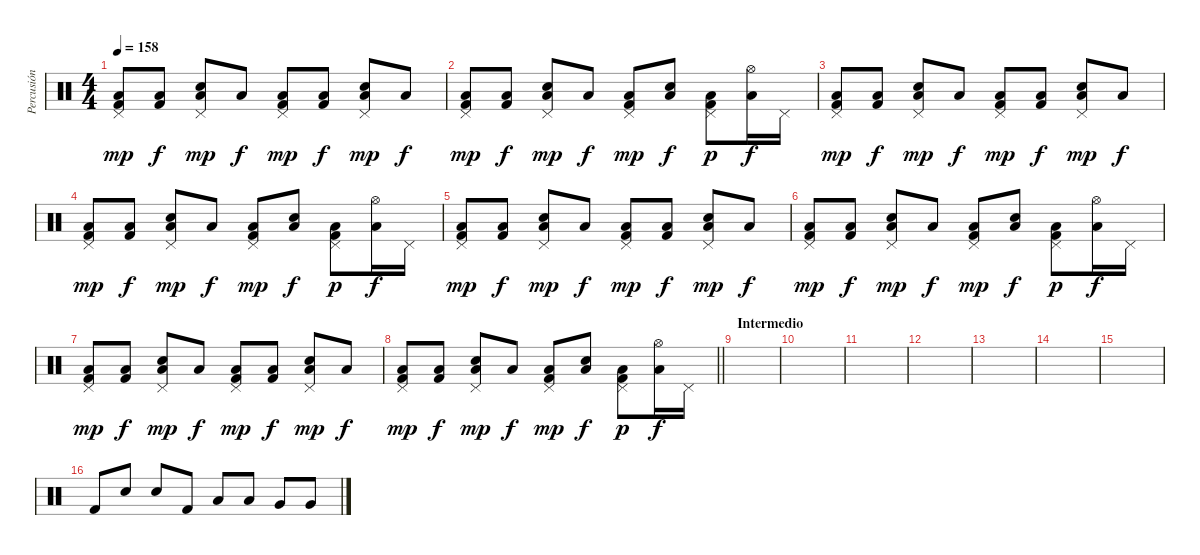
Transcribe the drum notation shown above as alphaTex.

\track ("Percusión" "Percusión") {instrument percussion}
\staff {score}
\articulation defaults
\ts (4 4)
\tempo 158
\clef neutral
\ks c
("Pedal Hi-Hat (hit)" "Low Floor Tom (hit)" "Kick (hit) 2").8{dy mp} ("Low Floor Tom (hit)" "Kick (hit) 2").8{dy f} ("Pedal Hi-Hat (hit)" "Low Floor Tom (hit)" "Electric Snare (hit)").8{dy mp} "Low Floor Tom (hit)".8{dy f} ("Pedal Hi-Hat (hit)" "Low Floor Tom (hit)" "Kick (hit) 2").8{dy mp} ("Low Floor Tom (hit)" "Kick (hit) 2").8{dy f} ("Pedal Hi-Hat (hit)" "Low Floor Tom (hit)" "Electric Snare (hit)").8{dy mp} "Low Floor Tom (hit)".8{dy f} |
("Pedal Hi-Hat (hit)" "Low Floor Tom (hit)" "Kick (hit) 2").8{dy mp} ("Low Floor Tom (hit)" "Kick (hit) 2").8{dy f} ("Pedal Hi-Hat (hit)" "Low Floor Tom (hit)" "Electric Snare (hit)").8{dy mp} "Low Floor Tom (hit)".8{dy f} ("Pedal Hi-Hat (hit)" "Low Floor Tom (hit)" "Kick (hit) 2").8{dy mp} ("Low Floor Tom (hit)" "Electric Snare (hit)").8{dy f} ("Pedal Hi-Hat (hit)" "Low Floor Tom (hit)" "Kick (hit) 2").8{dy p} ("Hi-Hat (open)" "Low Floor Tom (hit)").16{dy f} "Pedal Hi-Hat (hit)".16 |
("Pedal Hi-Hat (hit)" "Low Floor Tom (hit)" "Kick (hit) 2").8{dy mp} ("Low Floor Tom (hit)" "Kick (hit) 2").8{dy f} ("Pedal Hi-Hat (hit)" "Low Floor Tom (hit)" "Electric Snare (hit)").8{dy mp} "Low Floor Tom (hit)".8{dy f} ("Pedal Hi-Hat (hit)" "Low Floor Tom (hit)" "Kick (hit) 2").8{dy mp} ("Low Floor Tom (hit)" "Kick (hit) 2").8{dy f} ("Pedal Hi-Hat (hit)" "Low Floor Tom (hit)" "Electric Snare (hit)").8{dy mp} "Low Floor Tom (hit)".8{dy f} |
("Pedal Hi-Hat (hit)" "Low Floor Tom (hit)" "Kick (hit) 2").8{dy mp} ("Low Floor Tom (hit)" "Kick (hit) 2").8{dy f} ("Pedal Hi-Hat (hit)" "Low Floor Tom (hit)" "Electric Snare (hit)").8{dy mp} "Low Floor Tom (hit)".8{dy f} ("Pedal Hi-Hat (hit)" "Low Floor Tom (hit)" "Kick (hit) 2").8{dy mp} ("Low Floor Tom (hit)" "Electric Snare (hit)").8{dy f} ("Pedal Hi-Hat (hit)" "Low Floor Tom (hit)" "Kick (hit) 2").8{dy p} ("Hi-Hat (open)" "Low Floor Tom (hit)").16{dy f} "Pedal Hi-Hat (hit)".16 |
("Pedal Hi-Hat (hit)" "Low Floor Tom (hit)" "Kick (hit) 2").8{dy mp} ("Low Floor Tom (hit)" "Kick (hit) 2").8{dy f} ("Pedal Hi-Hat (hit)" "Low Floor Tom (hit)" "Electric Snare (hit)").8{dy mp} "Low Floor Tom (hit)".8{dy f} ("Pedal Hi-Hat (hit)" "Low Floor Tom (hit)" "Kick (hit) 2").8{dy mp} ("Low Floor Tom (hit)" "Kick (hit) 2").8{dy f} ("Pedal Hi-Hat (hit)" "Low Floor Tom (hit)" "Electric Snare (hit)").8{dy mp} "Low Floor Tom (hit)".8{dy f} |
("Pedal Hi-Hat (hit)" "Low Floor Tom (hit)" "Kick (hit) 2").8{dy mp} ("Low Floor Tom (hit)" "Kick (hit) 2").8{dy f} ("Pedal Hi-Hat (hit)" "Low Floor Tom (hit)" "Electric Snare (hit)").8{dy mp} "Low Floor Tom (hit)".8{dy f} ("Pedal Hi-Hat (hit)" "Low Floor Tom (hit)" "Kick (hit) 2").8{dy mp} ("Low Floor Tom (hit)" "Electric Snare (hit)").8{dy f} ("Pedal Hi-Hat (hit)" "Low Floor Tom (hit)" "Kick (hit) 2").8{dy p} ("Hi-Hat (open)" "Low Floor Tom (hit)").16{dy f} "Pedal Hi-Hat (hit)".16 |
("Pedal Hi-Hat (hit)" "Low Floor Tom (hit)" "Kick (hit) 2").8{dy mp} ("Low Floor Tom (hit)" "Kick (hit) 2").8{dy f} ("Pedal Hi-Hat (hit)" "Low Floor Tom (hit)" "Electric Snare (hit)").8{dy mp} "Low Floor Tom (hit)".8{dy f} ("Pedal Hi-Hat (hit)" "Low Floor Tom (hit)" "Kick (hit) 2").8{dy mp} ("Low Floor Tom (hit)" "Kick (hit) 2").8{dy f} ("Pedal Hi-Hat (hit)" "Low Floor Tom (hit)" "Electric Snare (hit)").8{dy mp} "Low Floor Tom (hit)".8{dy f} |
\barLineRight lightlight
("Pedal Hi-Hat (hit)" "Low Floor Tom (hit)" "Kick (hit) 2").8{dy mp} ("Low Floor Tom (hit)" "Kick (hit) 2").8{dy f} ("Pedal Hi-Hat (hit)" "Low Floor Tom (hit)" "Electric Snare (hit)").8{dy mp} "Low Floor Tom (hit)".8{dy f} ("Pedal Hi-Hat (hit)" "Low Floor Tom (hit)" "Kick (hit) 2").8{dy mp} ("Low Floor Tom (hit)" "Electric Snare (hit)").8{dy f} ("Pedal Hi-Hat (hit)" "Low Floor Tom (hit)" "Kick (hit) 2").8{dy p} ("Hi-Hat (open)" "Low Floor Tom (hit)").16{dy f} "Pedal Hi-Hat (hit)".16 |
\section ("" "Intermedio")
|
|
|
|
|
|
|
"Kick (hit) 2".8 "Electric Snare (hit)".8 "Electric Snare (hit)".8 "Kick (hit) 2".8 "Low Tom (hit)".8 "Low Tom (hit)".8 "Very Low Tom (hit)".8 "Very Low Tom (hit)".8
